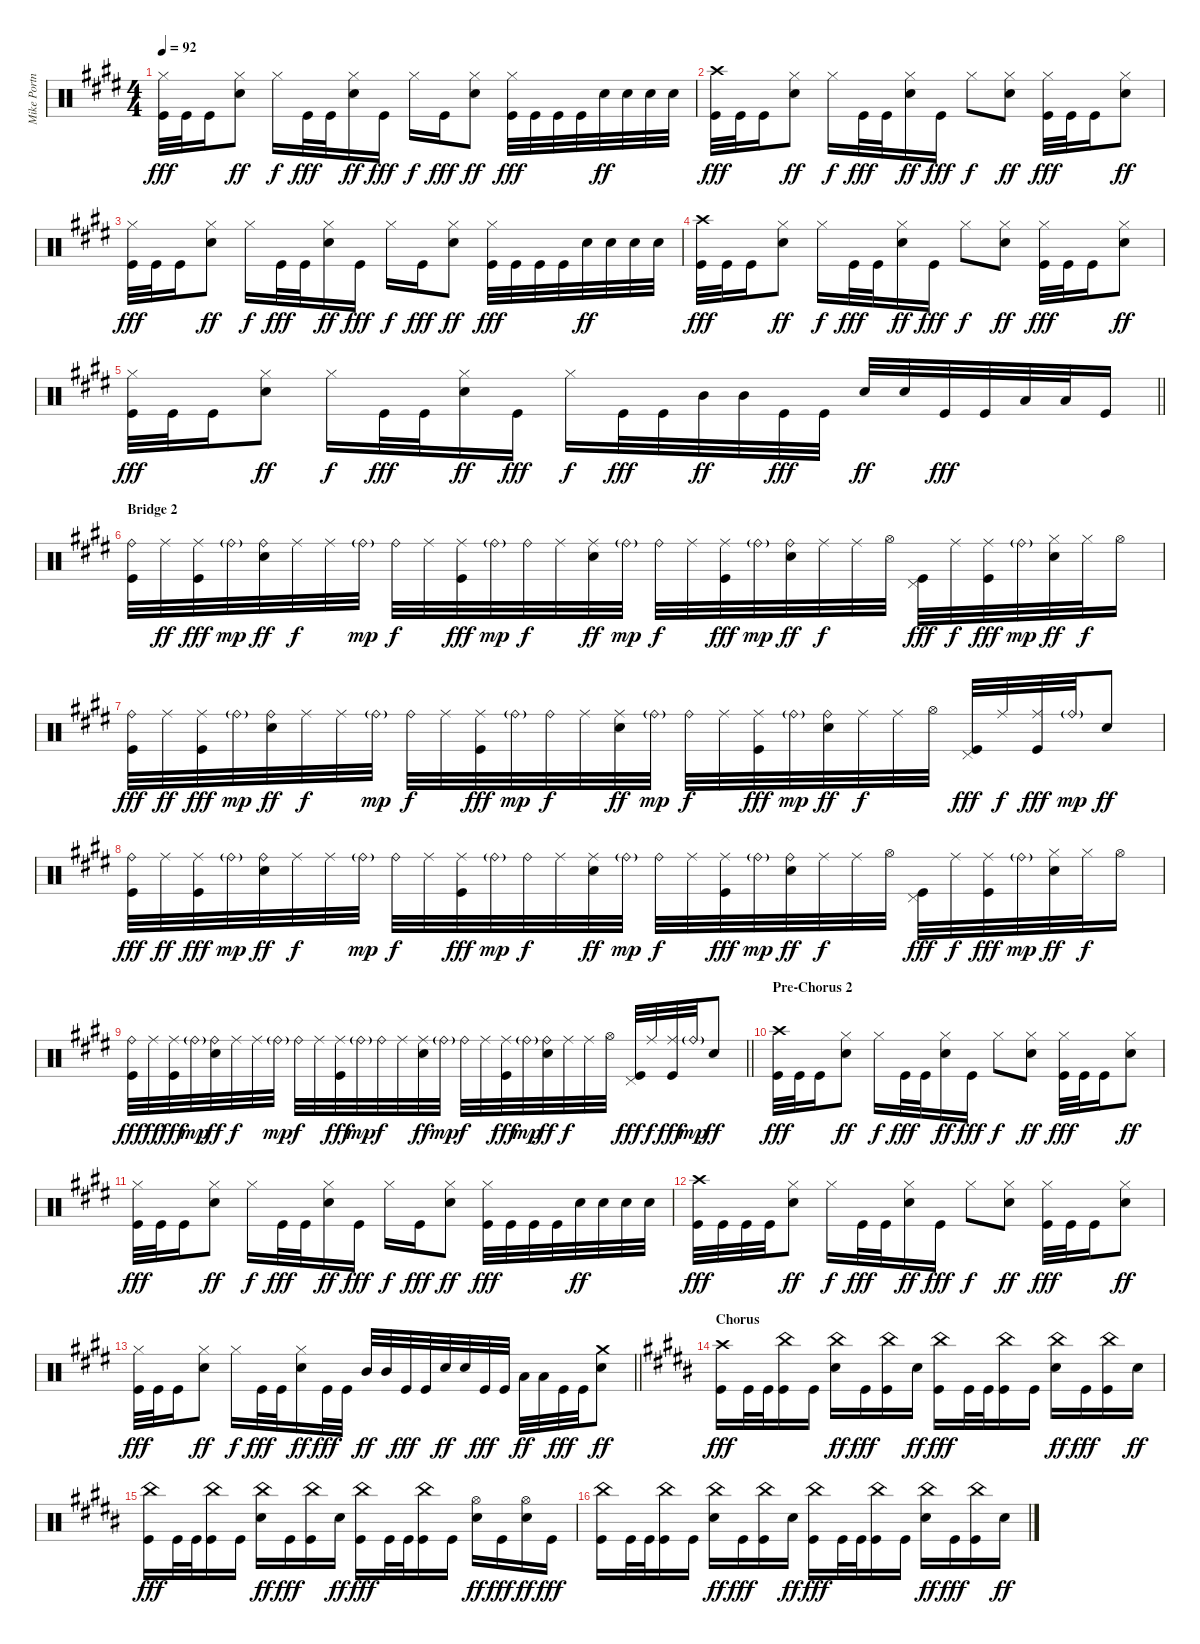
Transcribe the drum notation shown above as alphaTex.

\track ("Mike Portnoy" "Mike Portn") {instrument percussion}
\staff {score}
\articulation defaults
\ts (4 4)
\tempo 92
\clef neutral
\ks e
("Hi-Hat (closed)" "Kick (hit)").32{dy fff} "Kick (hit)".32 "Kick (hit)".16 ("Hi-Hat (closed)" "Electric Snare (hit)").8{dy ff} "Hi-Hat (closed)".16{dy f} "Kick (hit)".32{dy fff} "Kick (hit)".32 ("Hi-Hat (closed)" "Electric Snare (hit)").16{dy ff} "Kick (hit)".16{dy fff} "Hi-Hat (closed)".16{dy f} "Kick (hit)".16{dy fff} ("Hi-Hat (closed)" "Electric Snare (hit)").8{dy ff} ("Hi-Hat (closed)" "Kick (hit)").32{dy fff} "Kick (hit)".32 "Kick (hit)".32 "Kick (hit)".32 "Electric Snare (hit)".32{dy ff} "Electric Snare (hit)".32 "Electric Snare (hit)".32 "Electric Snare (hit)".32 |
("Crash high (hit)" "Kick (hit)").32{dy fff} "Kick (hit)".32 "Kick (hit)".16 ("Hi-Hat (closed)" "Electric Snare (hit)").8{dy ff} "Hi-Hat (closed)".16{dy f} "Kick (hit)".32{dy fff} "Kick (hit)".32 ("Hi-Hat (closed)" "Electric Snare (hit)").16{dy ff} "Kick (hit)".16{dy fff} "Hi-Hat (closed)".8{dy f} ("Hi-Hat (closed)" "Electric Snare (hit)").8{dy ff} ("Hi-Hat (closed)" "Kick (hit)").32{dy fff} "Kick (hit)".32 "Kick (hit)".16 ("Hi-Hat (closed)" "Electric Snare (hit)").8{dy ff} |
("Hi-Hat (closed)" "Kick (hit)").32{dy fff} "Kick (hit)".32 "Kick (hit)".16 ("Hi-Hat (closed)" "Electric Snare (hit)").8{dy ff} "Hi-Hat (closed)".16{dy f} "Kick (hit)".32{dy fff} "Kick (hit)".32 ("Hi-Hat (closed)" "Electric Snare (hit)").16{dy ff} "Kick (hit)".16{dy fff} "Hi-Hat (closed)".16{dy f} "Kick (hit)".16{dy fff} ("Hi-Hat (closed)" "Electric Snare (hit)").8{dy ff} ("Hi-Hat (closed)" "Kick (hit)").32{dy fff} "Kick (hit)".32 "Kick (hit)".32 "Kick (hit)".32 "Electric Snare (hit)".32{dy ff} "Electric Snare (hit)".32 "Electric Snare (hit)".32 "Electric Snare (hit)".32 |
("Crash high (hit)" "Kick (hit)").32{dy fff} "Kick (hit)".32 "Kick (hit)".16 ("Hi-Hat (closed)" "Electric Snare (hit)").8{dy ff} "Hi-Hat (closed)".16{dy f} "Kick (hit)".32{dy fff} "Kick (hit)".32 ("Hi-Hat (closed)" "Electric Snare (hit)").16{dy ff} "Kick (hit)".16{dy fff} "Hi-Hat (closed)".8{dy f} ("Hi-Hat (closed)" "Electric Snare (hit)").8{dy ff} ("Hi-Hat (closed)" "Kick (hit)").32{dy fff} "Kick (hit)".32 "Kick (hit)".16 ("Hi-Hat (closed)" "Electric Snare (hit)").8{dy ff} |
\barLineRight lightlight
("Hi-Hat (closed)" "Kick (hit)").32{dy fff} "Kick (hit)".32 "Kick (hit)".16 ("Hi-Hat (closed)" "Electric Snare (hit)").8{dy ff} "Hi-Hat (closed)".16{dy f} "Kick (hit)".32{dy fff} "Kick (hit)".32 ("Hi-Hat (closed)" "Electric Snare (hit)").16{dy ff} "Kick (hit)".16{dy fff} "Hi-Hat (closed)".16{dy f} "Kick (hit)".32{dy fff} "Kick (hit)".32 "Mid Tom (hit)".32{dy ff} "Mid Tom (hit)".32 "Kick (hit)".32{dy fff} "Kick (hit)".32 "Electric Snare (hit)".32{dy ff} "Electric Snare (hit)".32 "Kick (hit)".32{dy fff} "Kick (hit)".32 "Low Tom (hit)".32 "Low Tom (hit)".32 "Kick (hit)".16 |
\section ("" "Bridge 2")
("Ride (bell)" "Kick (hit)").32 "Ride (middle)".32{dy ff} ("Ride (middle)" "Kick (hit)").32{dy fff} "Ride (bell)"{g}.32{dy mp} ("Ride (bell)" "Electric Snare (hit)").32{dy ff} "Ride (middle)".32{dy f} "Ride (middle)".32 "Ride (bell)"{g}.32{dy mp} "Ride (bell)".32{dy f} "Ride (middle)".32 ("Ride (middle)" "Kick (hit)").32{dy fff} "Ride (bell)"{g}.32{dy mp} "Ride (bell)".32{dy f} "Ride (middle)".32 ("Ride (middle)" "Electric Snare (hit)").32{dy ff} "Ride (bell)"{g}.32{dy mp} "Ride (bell)".32{dy f} "Ride (middle)".32 ("Ride (middle)" "Kick (hit)").32{dy fff} "Ride (bell)"{g}.32{dy mp} ("Ride (bell)" "Electric Snare (hit)").32{dy ff} "Ride (middle)".32{dy f} "Ride (middle)".32 "Hi-Hat (open)".32 ("Pedal Hi-Hat (hit)" "Kick (hit)").32{dy fff} "Ride (middle)".32{dy f} ("Ride (middle)" "Kick (hit)").32{dy fff} "Ride (bell)"{g}.32{dy mp} ("Hi-Hat (closed)" "Electric Snare (hit)").32{dy ff} "Hi-Hat (closed)".32{dy f} "Hi-Hat (open)".16 |
("Ride (bell)" "Kick (hit)").32{dy fff} "Ride (middle)".32{dy ff} ("Ride (middle)" "Kick (hit)").32{dy fff} "Ride (bell)"{g}.32{dy mp} ("Ride (bell)" "Electric Snare (hit)").32{dy ff} "Ride (middle)".32{dy f} "Ride (middle)".32 "Ride (bell)"{g}.32{dy mp} "Ride (bell)".32{dy f} "Ride (middle)".32 ("Ride (middle)" "Kick (hit)").32{dy fff} "Ride (bell)"{g}.32{dy mp} "Ride (bell)".32{dy f} "Ride (middle)".32 ("Ride (middle)" "Electric Snare (hit)").32{dy ff} "Ride (bell)"{g}.32{dy mp} "Ride (bell)".32{dy f} "Ride (middle)".32 ("Ride (middle)" "Kick (hit)").32{dy fff} "Ride (bell)"{g}.32{dy mp} ("Ride (bell)" "Electric Snare (hit)").32{dy ff} "Ride (middle)".32{dy f} "Ride (middle)".32 "Hi-Hat (open)".32 ("Pedal Hi-Hat (hit)" "Kick (hit)").32{dy fff} "Ride (middle)".32{dy f} ("Ride (middle)" "Kick (hit)").32{dy fff} "Ride (bell)"{g}.32{dy mp} "Electric Snare (hit)".8{dy ff} |
("Ride (bell)" "Kick (hit)").32{dy fff} "Ride (middle)".32{dy ff} ("Ride (middle)" "Kick (hit)").32{dy fff} "Ride (bell)"{g}.32{dy mp} ("Ride (bell)" "Electric Snare (hit)").32{dy ff} "Ride (middle)".32{dy f} "Ride (middle)".32 "Ride (bell)"{g}.32{dy mp} "Ride (bell)".32{dy f} "Ride (middle)".32 ("Ride (middle)" "Kick (hit)").32{dy fff} "Ride (bell)"{g}.32{dy mp} "Ride (bell)".32{dy f} "Ride (middle)".32 ("Ride (middle)" "Electric Snare (hit)").32{dy ff} "Ride (bell)"{g}.32{dy mp} "Ride (bell)".32{dy f} "Ride (middle)".32 ("Ride (middle)" "Kick (hit)").32{dy fff} "Ride (bell)"{g}.32{dy mp} ("Ride (bell)" "Electric Snare (hit)").32{dy ff} "Ride (middle)".32{dy f} "Ride (middle)".32 "Hi-Hat (open)".32 ("Pedal Hi-Hat (hit)" "Kick (hit)").32{dy fff} "Ride (middle)".32{dy f} ("Ride (middle)" "Kick (hit)").32{dy fff} "Ride (bell)"{g}.32{dy mp} ("Hi-Hat (closed)" "Electric Snare (hit)").32{dy ff} "Hi-Hat (closed)".32{dy f} "Hi-Hat (open)".16 |
\barLineRight lightlight
("Ride (bell)" "Kick (hit)").32{dy fff} "Ride (middle)".32{dy ff} ("Ride (middle)" "Kick (hit)").32{dy fff} "Ride (bell)"{g}.32{dy mp} ("Ride (bell)" "Electric Snare (hit)").32{dy ff} "Ride (middle)".32{dy f} "Ride (middle)".32 "Ride (bell)"{g}.32{dy mp} "Ride (bell)".32{dy f} "Ride (middle)".32 ("Ride (middle)" "Kick (hit)").32{dy fff} "Ride (bell)"{g}.32{dy mp} "Ride (bell)".32{dy f} "Ride (middle)".32 ("Ride (middle)" "Electric Snare (hit)").32{dy ff} "Ride (bell)"{g}.32{dy mp} "Ride (bell)".32{dy f} "Ride (middle)".32 ("Ride (middle)" "Kick (hit)").32{dy fff} "Ride (bell)"{g}.32{dy mp} ("Ride (bell)" "Electric Snare (hit)").32{dy ff} "Ride (middle)".32{dy f} "Ride (middle)".32 "Hi-Hat (open)".32 ("Pedal Hi-Hat (hit)" "Kick (hit)").32{dy fff} "Ride (middle)".32{dy f} ("Ride (middle)" "Kick (hit)").32{dy fff} "Ride (bell)"{g}.32{dy mp} "Electric Snare (hit)".8{dy ff} |
\section ("" "Pre-Chorus 2")
("Crash high (hit)" "Kick (hit)").32{dy fff} "Kick (hit)".32 "Kick (hit)".16 ("Hi-Hat (closed)" "Electric Snare (hit)").8{dy ff} "Hi-Hat (closed)".16{dy f} "Kick (hit)".32{dy fff} "Kick (hit)".32 ("Hi-Hat (closed)" "Electric Snare (hit)").16{dy ff} "Kick (hit)".16{dy fff} "Hi-Hat (closed)".8{dy f} ("Hi-Hat (closed)" "Electric Snare (hit)").8{dy ff} ("Hi-Hat (closed)" "Kick (hit)").32{dy fff} "Kick (hit)".32 "Kick (hit)".16 ("Hi-Hat (closed)" "Electric Snare (hit)").8{dy ff} |
("Hi-Hat (closed)" "Kick (hit)").32{dy fff} "Kick (hit)".32 "Kick (hit)".16 ("Hi-Hat (closed)" "Electric Snare (hit)").8{dy ff} "Hi-Hat (closed)".16{dy f} "Kick (hit)".32{dy fff} "Kick (hit)".32 ("Hi-Hat (closed)" "Electric Snare (hit)").16{dy ff} "Kick (hit)".16{dy fff} "Hi-Hat (closed)".16{dy f} "Kick (hit)".16{dy fff} ("Hi-Hat (closed)" "Electric Snare (hit)").8{dy ff} ("Hi-Hat (closed)" "Kick (hit)").32{dy fff} "Kick (hit)".32 "Kick (hit)".32 "Kick (hit)".32 "Electric Snare (hit)".32{dy ff} "Electric Snare (hit)".32 "Electric Snare (hit)".32 "Electric Snare (hit)".32 |
("Crash high (hit)" "Kick (hit)").32{dy fff} "Kick (hit)".32 "Kick (hit)".32 "Kick (hit)".32 ("Hi-Hat (closed)" "Electric Snare (hit)").8{dy ff} "Hi-Hat (closed)".16{dy f} "Kick (hit)".32{dy fff} "Kick (hit)".32 ("Hi-Hat (closed)" "Electric Snare (hit)").16{dy ff} "Kick (hit)".16{dy fff} "Hi-Hat (closed)".8{dy f} ("Hi-Hat (closed)" "Electric Snare (hit)").8{dy ff} ("Hi-Hat (closed)" "Kick (hit)").32{dy fff} "Kick (hit)".32 "Kick (hit)".16 ("Hi-Hat (closed)" "Electric Snare (hit)").8{dy ff} |
\barLineRight lightlight
("Hi-Hat (closed)" "Kick (hit)").32{dy fff} "Kick (hit)".32 "Kick (hit)".16 ("Hi-Hat (closed)" "Electric Snare (hit)").8{dy ff} "Hi-Hat (closed)".16{dy f} "Kick (hit)".32{dy fff} "Kick (hit)".32 ("Hi-Hat (closed)" "Electric Snare (hit)").16{dy ff} "Kick (hit)".32{dy fff} "Kick (hit)".32 "Mid Tom (hit)".32{dy ff} "Mid Tom (hit)".32 "Kick (hit)".32{dy fff} "Kick (hit)".32 "Electric Snare (hit)".32{dy ff} "Electric Snare (hit)".32 "Kick (hit)".32{dy fff} "Kick (hit)".32 "Low Tom (hit)".32{dy ff} "Low Tom (hit)".32 "Kick (hit)".32{dy fff} "Kick (hit)".32 ("Crash medium (hit)" "Electric Snare (hit)").8{dy ff} |
\section ("" "Chorus")
\ks b
("Crash high (hit)" "Kick (hit)").16{dy fff} "Kick (hit)".32 "Kick (hit)".32 ("China (hit)" "Kick (hit)").16 "Kick (hit)".16 ("China (hit)" "Electric Snare (hit)").16{dy ff} "Kick (hit)".16{dy fff} ("China (hit)" "Kick (hit)").16 "Electric Snare (hit)".16{dy ff} ("China (hit)" "Kick (hit)").16{dy fff} "Kick (hit)".32 "Kick (hit)".32 ("China (hit)" "Kick (hit)").16 "Kick (hit)".16 ("China (hit)" "Electric Snare (hit)").16{dy ff} "Kick (hit)".16{dy fff} ("China (hit)" "Kick (hit)").16 "Electric Snare (hit)".16{dy ff} |
("China (hit)" "Kick (hit)").16{dy fff} "Kick (hit)".32 "Kick (hit)".32 ("China (hit)" "Kick (hit)").16 "Kick (hit)".16 ("China (hit)" "Electric Snare (hit)").16{dy ff} "Kick (hit)".16{dy fff} ("China (hit)" "Kick (hit)").16 "Electric Snare (hit)".16{dy ff} ("China (hit)" "Kick (hit)").16{dy fff} "Kick (hit)".32 "Kick (hit)".32 ("China (hit)" "Kick (hit)").16 "Kick (hit)".16 ("Hi-Hat (open)" "Electric Snare (hit)").16{dy ff} "Kick (hit)".16{dy fff} ("Hi-Hat (open)" "Electric Snare (hit)").16{dy ff} "Kick (hit)".16{dy fff} |
("China (hit)" "Kick (hit)").16 "Kick (hit)".32 "Kick (hit)".32 ("China (hit)" "Kick (hit)").16 "Kick (hit)".16 ("China (hit)" "Electric Snare (hit)").16{dy ff} "Kick (hit)".16{dy fff} ("China (hit)" "Kick (hit)").16 "Electric Snare (hit)".16{dy ff} ("China (hit)" "Kick (hit)").16{dy fff} "Kick (hit)".32 "Kick (hit)".32 ("China (hit)" "Kick (hit)").16 "Kick (hit)".16 ("China (hit)" "Electric Snare (hit)").16{dy ff} "Kick (hit)".16{dy fff} ("China (hit)" "Kick (hit)").16 "Electric Snare (hit)".16{dy ff}
